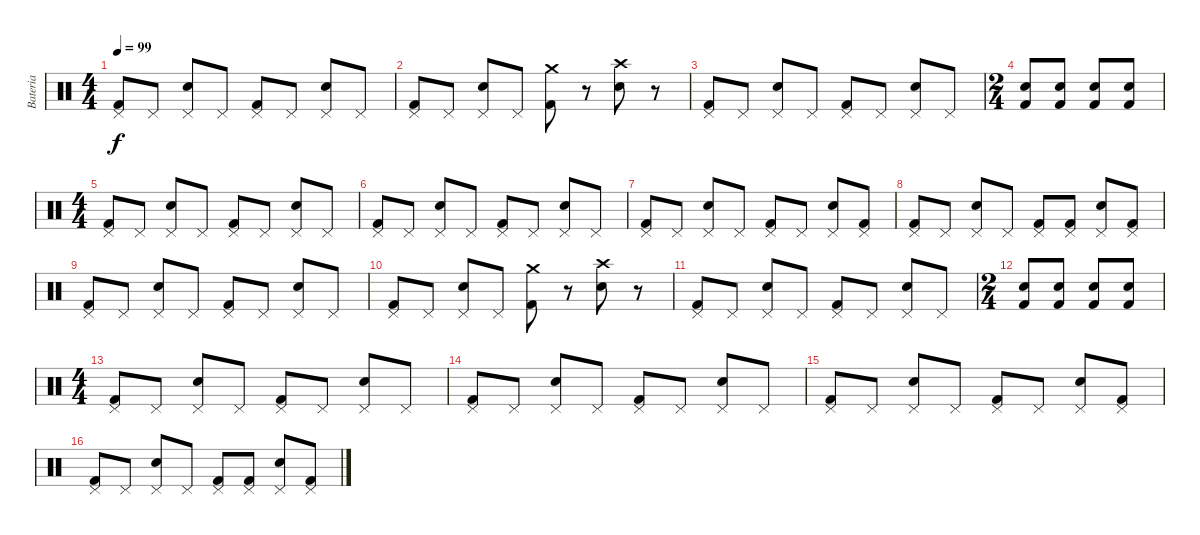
\track ("Bateria" "Bateria") {instrument percussion}
\staff {score}
\articulation defaults
\ts (4 4)
\tempo 99
\clef neutral
\ks c
("Pedal Hi-Hat (hit)" "Kick (hit) 2").8{dy f} "Pedal Hi-Hat (hit)".8 ("Pedal Hi-Hat (hit)" "Electric Snare (hit)").8 "Pedal Hi-Hat (hit)".8 ("Pedal Hi-Hat (hit)" "Kick (hit) 2").8 "Pedal Hi-Hat (hit)".8 ("Pedal Hi-Hat (hit)" "Electric Snare (hit)").8 "Pedal Hi-Hat (hit)".8 |
("Pedal Hi-Hat (hit)" "Kick (hit) 2").8 "Pedal Hi-Hat (hit)".8 ("Pedal Hi-Hat (hit)" "Electric Snare (hit)").8 "Pedal Hi-Hat (hit)".8 ("Crash medium (hit)" "Kick (hit) 2").8 r.8 ("Crash high (hit)" "Electric Snare (hit)").8 r.8 |
("Pedal Hi-Hat (hit)" "Kick (hit) 2").8 "Pedal Hi-Hat (hit)".8 ("Pedal Hi-Hat (hit)" "Electric Snare (hit)").8 "Pedal Hi-Hat (hit)".8 ("Pedal Hi-Hat (hit)" "Kick (hit) 2").8 "Pedal Hi-Hat (hit)".8 ("Pedal Hi-Hat (hit)" "Electric Snare (hit)").8 "Pedal Hi-Hat (hit)".8 |
\ts (2 4)
("Electric Snare (hit)" "Kick (hit) 2").8 ("Electric Snare (hit)" "Kick (hit) 2").8 ("Electric Snare (hit)" "Kick (hit) 2").8 ("Electric Snare (hit)" "Kick (hit) 2").8 |
\ts (4 4)
("Pedal Hi-Hat (hit)" "Kick (hit) 2").8 "Pedal Hi-Hat (hit)".8 ("Pedal Hi-Hat (hit)" "Electric Snare (hit)").8 "Pedal Hi-Hat (hit)".8 ("Pedal Hi-Hat (hit)" "Kick (hit) 2").8 "Pedal Hi-Hat (hit)".8 ("Pedal Hi-Hat (hit)" "Electric Snare (hit)").8 "Pedal Hi-Hat (hit)".8 |
("Pedal Hi-Hat (hit)" "Kick (hit) 2").8 "Pedal Hi-Hat (hit)".8 ("Pedal Hi-Hat (hit)" "Electric Snare (hit)").8 "Pedal Hi-Hat (hit)".8 ("Pedal Hi-Hat (hit)" "Kick (hit) 2").8 "Pedal Hi-Hat (hit)".8 ("Pedal Hi-Hat (hit)" "Electric Snare (hit)").8 "Pedal Hi-Hat (hit)".8 |
("Pedal Hi-Hat (hit)" "Kick (hit) 2").8 "Pedal Hi-Hat (hit)".8 ("Pedal Hi-Hat (hit)" "Electric Snare (hit)").8 "Pedal Hi-Hat (hit)".8 ("Pedal Hi-Hat (hit)" "Kick (hit) 2").8 "Pedal Hi-Hat (hit)".8 ("Pedal Hi-Hat (hit)" "Electric Snare (hit)").8 ("Pedal Hi-Hat (hit)" "Kick (hit) 2").8 |
("Pedal Hi-Hat (hit)" "Kick (hit) 2").8 "Pedal Hi-Hat (hit)".8 ("Pedal Hi-Hat (hit)" "Electric Snare (hit)").8 "Pedal Hi-Hat (hit)".8 ("Pedal Hi-Hat (hit)" "Kick (hit) 2").8 ("Pedal Hi-Hat (hit)" "Kick (hit) 2").8 ("Pedal Hi-Hat (hit)" "Electric Snare (hit)").8 ("Pedal Hi-Hat (hit)" "Kick (hit) 2").8 |
("Pedal Hi-Hat (hit)" "Kick (hit) 2").8 "Pedal Hi-Hat (hit)".8 ("Pedal Hi-Hat (hit)" "Electric Snare (hit)").8 "Pedal Hi-Hat (hit)".8 ("Pedal Hi-Hat (hit)" "Kick (hit) 2").8 "Pedal Hi-Hat (hit)".8 ("Pedal Hi-Hat (hit)" "Electric Snare (hit)").8 "Pedal Hi-Hat (hit)".8 |
("Pedal Hi-Hat (hit)" "Kick (hit) 2").8 "Pedal Hi-Hat (hit)".8 ("Pedal Hi-Hat (hit)" "Electric Snare (hit)").8 "Pedal Hi-Hat (hit)".8 ("Crash medium (hit)" "Kick (hit) 2").8 r.8 ("Crash high (hit)" "Electric Snare (hit)").8 r.8 |
("Pedal Hi-Hat (hit)" "Kick (hit) 2").8 "Pedal Hi-Hat (hit)".8 ("Pedal Hi-Hat (hit)" "Electric Snare (hit)").8 "Pedal Hi-Hat (hit)".8 ("Pedal Hi-Hat (hit)" "Kick (hit) 2").8 "Pedal Hi-Hat (hit)".8 ("Pedal Hi-Hat (hit)" "Electric Snare (hit)").8 "Pedal Hi-Hat (hit)".8 |
\ts (2 4)
("Electric Snare (hit)" "Kick (hit) 2").8 ("Electric Snare (hit)" "Kick (hit) 2").8 ("Electric Snare (hit)" "Kick (hit) 2").8 ("Electric Snare (hit)" "Kick (hit) 2").8 |
\ts (4 4)
("Pedal Hi-Hat (hit)" "Kick (hit) 2").8{volume 8} "Pedal Hi-Hat (hit)".8 ("Pedal Hi-Hat (hit)" "Electric Snare (hit)").8 "Pedal Hi-Hat (hit)".8 ("Pedal Hi-Hat (hit)" "Kick (hit) 2").8 "Pedal Hi-Hat (hit)".8 ("Pedal Hi-Hat (hit)" "Electric Snare (hit)").8 "Pedal Hi-Hat (hit)".8 |
("Pedal Hi-Hat (hit)" "Kick (hit) 2").8 "Pedal Hi-Hat (hit)".8 ("Pedal Hi-Hat (hit)" "Electric Snare (hit)").8 "Pedal Hi-Hat (hit)".8 ("Pedal Hi-Hat (hit)" "Kick (hit) 2").8 "Pedal Hi-Hat (hit)".8 ("Pedal Hi-Hat (hit)" "Electric Snare (hit)").8 "Pedal Hi-Hat (hit)".8 |
("Pedal Hi-Hat (hit)" "Kick (hit) 2").8 "Pedal Hi-Hat (hit)".8 ("Pedal Hi-Hat (hit)" "Electric Snare (hit)").8 "Pedal Hi-Hat (hit)".8 ("Pedal Hi-Hat (hit)" "Kick (hit) 2").8 "Pedal Hi-Hat (hit)".8 ("Pedal Hi-Hat (hit)" "Electric Snare (hit)").8 ("Pedal Hi-Hat (hit)" "Kick (hit) 2").8 |
("Pedal Hi-Hat (hit)" "Kick (hit) 2").8 "Pedal Hi-Hat (hit)".8 ("Pedal Hi-Hat (hit)" "Electric Snare (hit)").8 "Pedal Hi-Hat (hit)".8 ("Pedal Hi-Hat (hit)" "Kick (hit) 2").8 ("Pedal Hi-Hat (hit)" "Kick (hit) 2").8 ("Pedal Hi-Hat (hit)" "Electric Snare (hit)").8 ("Pedal Hi-Hat (hit)" "Kick (hit) 2").8
